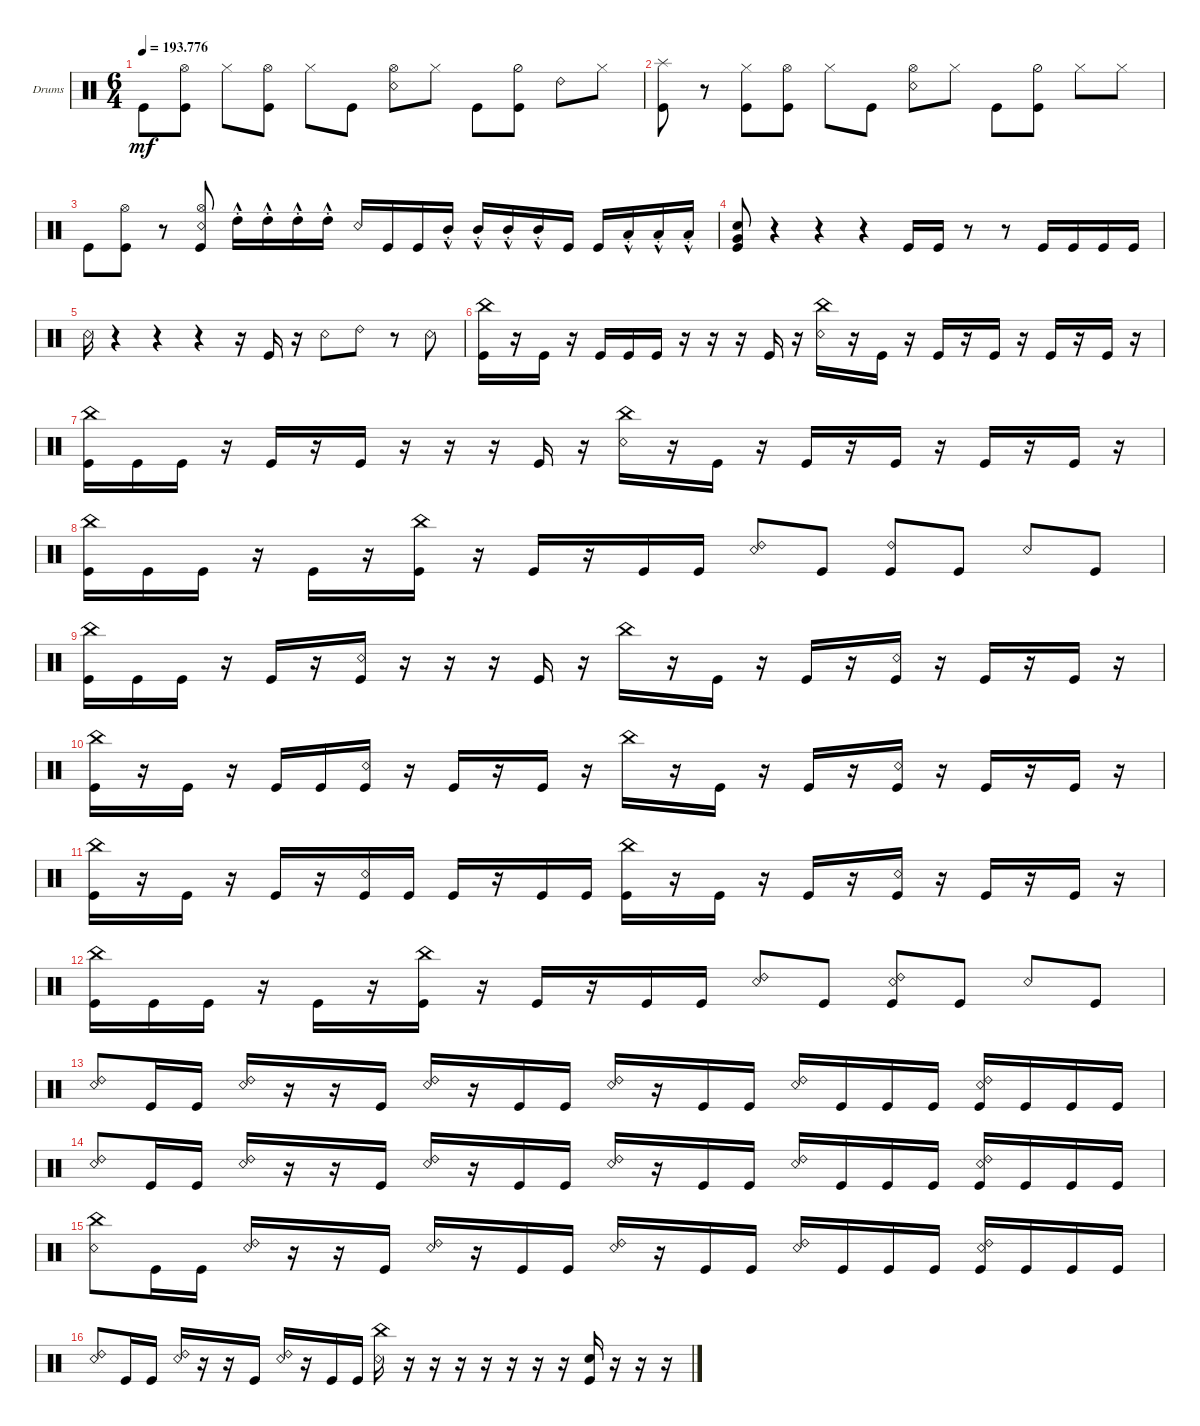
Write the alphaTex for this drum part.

\defaultSystemsLayout 4
\bracketExtendMode groupsimilarinstruments
\firstSystemTrackNameOrientation horizontal
\otherSystemsTrackNameOrientation horizontal
\track ("Drumkit" "Drums") {mute multiBarRest instrument percussion}
\staff {score}
\articulation defaults
\ts (6 4)
\tempo
193.776
\accidentals auto
\clef neutral
\ottava regular
\simile none
\scale
0.333333
\ks c "Kick (hit)".8{dy mf}
("Kick (hit)" "Hi-Hat (open)").8 "Hi-Hat (closed)".8 ("Kick (hit)" "Hi-Hat (open)").8 "Hi-Hat (closed)".8 "Kick (hit)".8 ("Snare (rim shot)" "Hi-Hat (open)").8 "Hi-Hat (closed)".8 "Kick (hit)".8 ("Kick (hit)" "Hi-Hat (half)").8 "Ride (bell) 2".8 "Hi-Hat (closed)".8 |
\scale
0.333333 ("Kick (hit)" "Splash (hit)").8 r.8 ("Hi-Hat (closed)" "Kick (hit)").8 ("Kick (hit)" "Hi-Hat (open)").8 "Hi-Hat (closed)".8 "Kick (hit)".8 ("Snare (rim shot)" "Hi-Hat (open)").8 "Hi-Hat (closed)".8 "Kick (hit)".8 ("Kick (hit)" "Hi-Hat (half)").8 "Hi-Hat (closed)".8 "Hi-Hat (closed)".8 |
\scale
0.333333 "Kick (hit)".8 ("Kick (hit)" "Hi-Hat (open)").8 r.8 ("Kick (hit)" "Hi-Hat (open)" "Snare (rim shot)").8 "High Tom (hit)"{hac st}.16 "High Tom (hit)"{hac st}.16 "High Tom (hit)"{hac st}.16 "High Tom (hit)"{hac st}.16 "Snare (rim shot)".16 "Kick (hit)".16 "Kick (hit)".16 "Mid Tom (hit)"{hac st}.16 "Mid Tom (hit)"{hac st}.16 "Mid Tom (hit)"{hac st}.16 "Mid Tom (hit)"{hac st}.16 "Kick (hit)".16 "Kick (hit)".16 "Low Tom (hit)"{hac st}.16 "Low Tom (hit)"{hac st}.16 "Low Tom (hit)"{hac st}.16 |
\scale
0.333333 ("Kick (hit)" "Very Low Tom (hit)" "Snare (hit) 2").8 r.4 r.4 r.4 "Kick (hit)".16 "Kick (hit)".16 r.8 r.8 "Kick (hit)".16 "Kick (hit)".16 "Kick (hit)".16 "Kick (hit)".16 |
"Snare (rim shot)".16 r.4 r.4 r.4 r.16 "Kick (hit)".16 r.16 "Snare (rim shot)".8 "Ride (bell) 2".8 r.8 "Snare (rim shot)".8 |
\scale
0.333333 ("Kick (hit)" "China (hit)").16 r.16 "Kick (hit)".16 r.16 "Kick (hit)".16 "Kick (hit)".16 "Kick (hit)".16 r.16 r.16 r.16 "Kick (hit)".16 r.16 ("Snare (rim shot)" "China (hit)").16 r.16 "Kick (hit)".16 r.16 "Kick (hit)".16 r.16 "Kick (hit)".16 r.16 "Kick (hit)".16 r.16 "Kick (hit)".16 r.16 |
\scale
0.333333 ("Kick (hit)" "China (hit)").16 "Kick (hit)".16 "Kick (hit)".16 r.16 "Kick (hit)".16 r.16 "Kick (hit)".16 r.16 r.16 r.16 "Kick (hit)".16 r.16 ("Snare (rim shot)" "China (hit)").16 r.16 "Kick (hit)".16 r.16 "Kick (hit)".16 r.16 "Kick (hit)".16 r.16 "Kick (hit)".16 r.16 "Kick (hit)".16 r.16 |
\scale
0.333333 ("Kick (hit)" "China (hit)").16 "Kick (hit)".16 "Kick (hit)".16 r.16 "Kick (hit)".16 r.16 ("Kick (hit)" "China (hit)").16 r.16 "Kick (hit)".16 r.16 "Kick (hit)".16 "Kick (hit)".16 ("Snare (rim shot)" "Ride (bell) 2").8 "Kick (hit)".8 ("Ride (bell) 2" "Kick (hit)").8 "Kick (hit)".8 "Snare (rim shot)".8 "Kick (hit)".8 |
\scale
0.333333 ("Kick (hit)" "China (hit)").16 "Kick (hit)".16 "Kick (hit)".16 r.16 "Kick (hit)".16 r.16 ("Kick (hit)" "Snare (rim shot)").16 r.16 r.16 r.16 "Kick (hit)".16 r.16 "China (hit)".16 r.16 "Kick (hit)".16 r.16 "Kick (hit)".16 r.16 ("Kick (hit)" "Snare (rim shot)").16 r.16 "Kick (hit)".16 r.16 "Kick (hit)".16 r.16 |
\scale
0.333333 ("Kick (hit)" "China (hit)").16 r.16 "Kick (hit)".16 r.16 "Kick (hit)".16 "Kick (hit)".16 ("Kick (hit)" "Snare (rim shot)").16 r.16 "Kick (hit)".16 r.16 "Kick (hit)".16 r.16 "China (hit)".16 r.16 "Kick (hit)".16 r.16 "Kick (hit)".16 r.16 ("Kick (hit)" "Snare (rim shot)").16 r.16 "Kick (hit)".16 r.16 "Kick (hit)".16 r.16 |
\scale
0.333333 ("Kick (hit)" "China (hit)").16 r.16 "Kick (hit)".16 r.16 "Kick (hit)".16 r.16 ("Kick (hit)" "Snare (rim shot)").16 "Kick (hit)".16 "Kick (hit)".16 r.16 "Kick (hit)".16 "Kick (hit)".16 ("Kick (hit)" "China (hit)").16 r.16 "Kick (hit)".16 r.16 "Kick (hit)".16 r.16 ("Kick (hit)" "Snare (rim shot)").16 r.16 "Kick (hit)".16 r.16 "Kick (hit)".16 r.16 |
\scale
0.333333 ("Kick (hit)" "China (hit)").16 "Kick (hit)".16 "Kick (hit)".16 r.16 "Kick (hit)".16 r.16 ("Kick (hit)" "China (hit)").16 r.16 "Kick (hit)".16 r.16 "Kick (hit)".16 "Kick (hit)".16 ("Snare (rim shot)" "Ride (bell) 2").8 "Kick (hit)".8 ("Ride (bell) 2" "Kick (hit)" "Snare (rim shot)").8 "Kick (hit)".8 "Snare (rim shot)".8 "Kick (hit)".8 |
\scale
0.333333 ("Snare (rim shot)" "Ride (bell) 2").8 "Kick (hit)".16 "Kick (hit)".16 ("Snare (rim shot)" "Ride (bell) 2").16 r.16 r.16 "Kick (hit)".16 ("Ride (bell) 2" "Snare (rim shot)").16 r.16 "Kick (hit)".16 "Kick (hit)".16 ("Snare (rim shot)" "Ride (bell) 2").16 r.16 "Kick (hit)".16 "Kick (hit)".16 ("Snare (rim shot)" "Ride (bell) 2").16 "Kick (hit)".16 "Kick (hit)".16 "Kick (hit)".16 ("Kick (hit)" "Snare (rim shot)" "Ride (bell) 2").16 "Kick (hit)".16 "Kick (hit)".16 "Kick (hit)".16 |
\scale
0.333333 ("Snare (rim shot)" "Ride (bell) 2").8 "Kick (hit)".16 "Kick (hit)".16 ("Snare (rim shot)" "Ride (bell) 2").16 r.16 r.16 "Kick (hit)".16 ("Ride (bell) 2" "Snare (rim shot)").16 r.16 "Kick (hit)".16 "Kick (hit)".16 ("Snare (rim shot)" "Ride (bell) 2").16 r.16 "Kick (hit)".16 "Kick (hit)".16 ("Snare (rim shot)" "Ride (bell) 2").16 "Kick (hit)".16 "Kick (hit)".16 "Kick (hit)".16 ("Kick (hit)" "Snare (rim shot)" "Ride (bell) 2").16 "Kick (hit)".16 "Kick (hit)".16 "Kick (hit)".16 |
\scale
0.333333 ("Snare (rim shot)" "China (hit)").8 "Kick (hit)".16 "Kick (hit)".16 ("Snare (rim shot)" "Ride (bell) 2").16 r.16 r.16 "Kick (hit)".16 ("Ride (bell) 2" "Snare (rim shot)").16 r.16 "Kick (hit)".16 "Kick (hit)".16 ("Snare (rim shot)" "Ride (bell) 2").16 r.16 "Kick (hit)".16 "Kick (hit)".16 ("Snare (rim shot)" "Ride (bell) 2").16 "Kick (hit)".16 "Kick (hit)".16 "Kick (hit)".16 ("Kick (hit)" "Snare (rim shot)" "Ride (bell) 2").16 "Kick (hit)".16 "Kick (hit)".16 "Kick (hit)".16 |
\scale
0.333333 ("Snare (rim shot)" "Ride (bell) 2").8 "Kick (hit)".16 "Kick (hit)".16 ("Snare (rim shot)" "Ride (bell) 2").16 r.16 r.16 "Kick (hit)".16 ("Ride (bell) 2" "Snare (rim shot)").16 r.16 "Kick (hit)".16 "Kick (hit)".16 ("Snare (rim shot)" "China (hit)").16 r.16 r.16 r.16 r.16 r.16 r.16 r.16 ("Snare (hit) 2" "Kick (hit)").16 r.16 r.16 r.16
